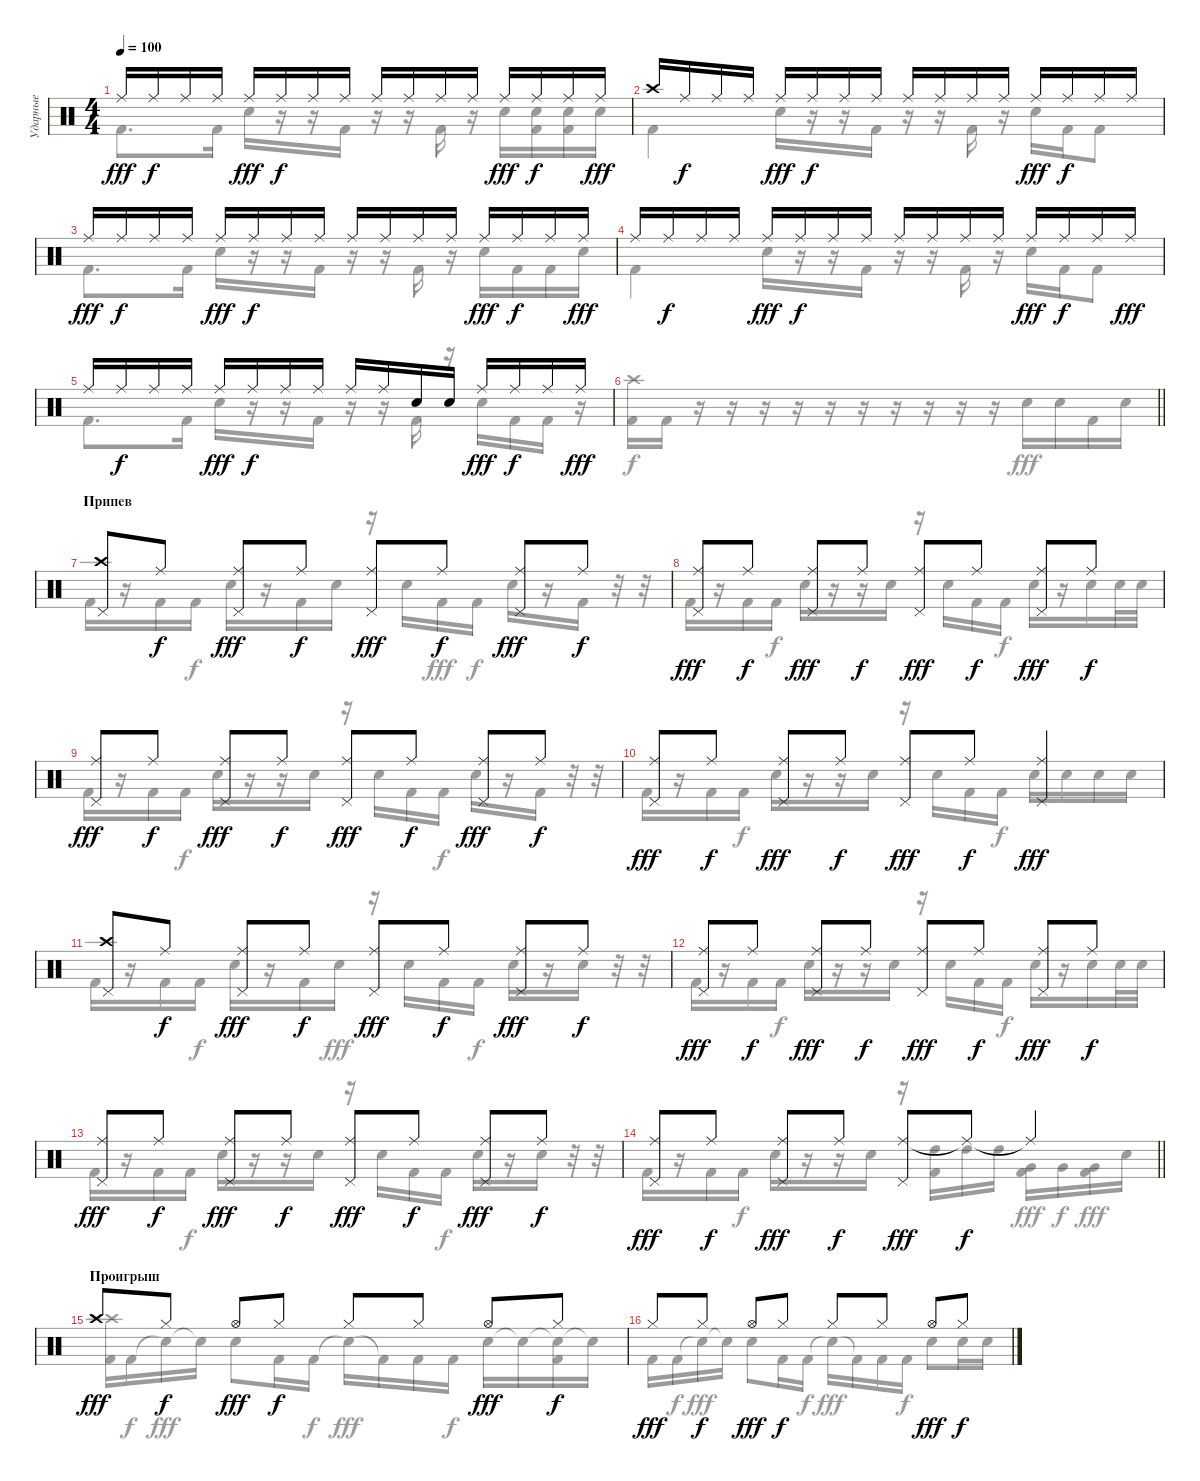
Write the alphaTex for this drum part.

\track ("Ударные" "Ударные") {instrument percussion}
\staff {score}
\articulation defaults
\voice
\ts (4 4)
\tempo 100
\clef neutral
\ks c "Ride (middle)".16{dy fff} "Ride (middle)".16{dy f} "Ride (middle)".16 "Ride (middle)".16 "Ride (middle)".16{dy fff} "Ride (middle)".16{dy f} "Ride (middle)".16 "Ride (middle)".16 "Ride (middle)".16 "Ride (middle)".16 "Ride (middle)".16 "Ride (middle)".16 "Ride (middle)".16{dy fff} "Ride (middle)".16{dy f} "Ride (middle)".16 "Ride (middle)".16{dy fff}
|
"Crash high (hit)".16 "Ride (middle)".16{dy f} "Ride (middle)".16 "Ride (middle)".16 "Ride (middle)".16{dy fff} "Ride (middle)".16{dy f} "Ride (middle)".16 "Ride (middle)".16 "Ride (middle)".16 "Ride (middle)".16 "Ride (middle)".16 "Ride (middle)".16 "Ride (middle)".16{dy fff} "Ride (middle)".16{dy f} "Ride (middle)".16 "Ride (middle)".16 |
"Ride (middle)".16{dy fff} "Ride (middle)".16{dy f} "Ride (middle)".16 "Ride (middle)".16 "Ride (middle)".16{dy fff} "Ride (middle)".16{dy f} "Ride (middle)".16 "Ride (middle)".16 "Ride (middle)".16 "Ride (middle)".16 "Ride (middle)".16 "Ride (middle)".16 "Ride (middle)".16{dy fff} "Ride (middle)".16{dy f} "Ride (middle)".16 "Ride (middle)".16{dy fff} |
"Ride (middle)".16 "Ride (middle)".16{dy f} "Ride (middle)".16 "Ride (middle)".16 "Ride (middle)".16{dy fff} "Ride (middle)".16{dy f} "Ride (middle)".16 "Ride (middle)".16 "Ride (middle)".16 "Ride (middle)".16 "Ride (middle)".16 "Ride (middle)".16 "Ride (middle)".16{dy fff} "Ride (middle)".16{dy f} "Ride (middle)".16 "Ride (middle)".16{dy fff} |
"Ride (middle)".16 "Ride (middle)".16{dy f} "Ride (middle)".16 "Ride (middle)".16 "Ride (middle)".16{dy fff} "Ride (middle)".16{dy f} "Ride (middle)".16 "Ride (middle)".16 "Ride (middle)".16 "Ride (middle)".16 "Snare (hit)".16 "Snare (hit)".16 "Ride (middle)".16{dy fff} "Ride (middle)".16{dy f} "Ride (middle)".16 "Ride (middle)".16{dy fff} |
\barLineRight lightlight
|
\section ("" "Припев")
("Crash high (hit)" "Pedal Hi-Hat (hit)").8 "Ride (middle)".8{dy f} ("Ride (middle)" "Pedal Hi-Hat (hit)").8{dy fff} "Ride (middle)".8{dy f} ("Ride (middle)" "Pedal Hi-Hat (hit)").8{dy fff} "Ride (middle)".8{dy f} ("Ride (middle)" "Pedal Hi-Hat (hit)").8{dy fff} "Ride (middle)".8{dy f} |
("Ride (middle)" "Pedal Hi-Hat (hit)").8{dy fff} "Ride (middle)".8{dy f} ("Ride (middle)" "Pedal Hi-Hat (hit)").8{dy fff} "Ride (middle)".8{dy f} ("Ride (middle)" "Pedal Hi-Hat (hit)").8{dy fff} "Ride (middle)".8{dy f} ("Ride (middle)" "Pedal Hi-Hat (hit)").8{dy fff} "Ride (middle)".8{dy f} |
("Ride (middle)" "Pedal Hi-Hat (hit)").8{dy fff} "Ride (middle)".8{dy f} ("Ride (middle)" "Pedal Hi-Hat (hit)").8{dy fff} "Ride (middle)".8{dy f} ("Ride (middle)" "Pedal Hi-Hat (hit)").8{dy fff} "Ride (middle)".8{dy f} ("Ride (middle)" "Pedal Hi-Hat (hit)").8{dy fff} "Ride (middle)".8{dy f} |
("Ride (middle)" "Pedal Hi-Hat (hit)").8{dy fff} "Ride (middle)".8{dy f} ("Ride (middle)" "Pedal Hi-Hat (hit)").8{dy fff} "Ride (middle)".8{dy f} ("Ride (middle)" "Pedal Hi-Hat (hit)").8{dy fff} "Ride (middle)".8{dy f} ("Ride (middle)" "Pedal Hi-Hat (hit)").4{dy fff} |
("Crash high (hit)" "Pedal Hi-Hat (hit)").8 "Ride (middle)".8{dy f} ("Ride (middle)" "Pedal Hi-Hat (hit)").8{dy fff} "Ride (middle)".8{dy f} ("Ride (middle)" "Pedal Hi-Hat (hit)").8{dy fff} "Ride (middle)".8{dy f} ("Ride (middle)" "Pedal Hi-Hat (hit)").8{dy fff} "Ride (middle)".8{dy f} |
("Ride (middle)" "Pedal Hi-Hat (hit)").8{dy fff} "Ride (middle)".8{dy f} ("Ride (middle)" "Pedal Hi-Hat (hit)").8{dy fff} "Ride (middle)".8{dy f} ("Ride (middle)" "Pedal Hi-Hat (hit)").8{dy fff} "Ride (middle)".8{dy f} ("Ride (middle)" "Pedal Hi-Hat (hit)").8{dy fff} "Ride (middle)".8{dy f} |
("Ride (middle)" "Pedal Hi-Hat (hit)").8{dy fff} "Ride (middle)".8{dy f} ("Ride (middle)" "Pedal Hi-Hat (hit)").8{dy fff} "Ride (middle)".8{dy f} ("Ride (middle)" "Pedal Hi-Hat (hit)").8{dy fff} "Ride (middle)".8{dy f} ("Ride (middle)" "Pedal Hi-Hat (hit)").8{dy fff} "Ride (middle)".8{dy f} |
\barLineRight lightlight
("Ride (middle)" "Pedal Hi-Hat (hit)").8{dy fff} "Ride (middle)".8{dy f} ("Ride (middle)" "Pedal Hi-Hat (hit)").8{dy fff} "Ride (middle)".8{dy f} ("Ride (middle)" "Pedal Hi-Hat (hit)").8{dy fff} "Ride (middle)"{t}.8{dy f} "Ride (middle)"{t}.4 |
\section ("" "Проигрыш")
"Crash high (hit)".8{dy fff} "Hi-Hat (closed)".8{dy f} "Hi-Hat (open)".8{dy fff} "Hi-Hat (closed)".8{dy f} "Hi-Hat (closed)".8 "Hi-Hat (closed)".8 "Hi-Hat (open)".8{dy fff} "Hi-Hat (closed)".8{dy f} |
"Hi-Hat (closed)".8{dy fff} "Hi-Hat (closed)".8{dy f} "Hi-Hat (open)".8{dy fff} "Hi-Hat (closed)".8{dy f} "Hi-Hat (closed)".8 "Hi-Hat (closed)".8 "Hi-Hat (open)".8{dy fff} "Hi-Hat (closed)".8{dy f}
\voice
\clef neutral
\ottava regular
\simile none
\ks c "Kick (hit) 2".8{d dy fff} "Kick (hit) 2".16 "Snare (hit) 2".16
r.16 r.16 "Kick (hit) 2".16 r.16 r.16 "Kick (hit) 2".16 r.16 "Snare (hit) 2".16 ("Snare (hit) 2" "Kick (hit) 2").16 ("Snare (hit) 2" "Kick (hit) 2").16 "Snare (hit) 2".16 |
"Kick (hit) 2".4 "Snare (hit) 2".16 r.16 r.16 "Kick (hit) 2".16 r.16 r.16 "Kick (hit) 2".16 r.16 "Snare (hit) 2".16 "Kick (hit) 2".16 "Kick (hit) 2".8 |
"Kick (hit) 2".8{d} "Kick (hit) 2".16 "Snare (hit) 2".16 r.16 r.16 "Kick (hit) 2".16 r.16 r.16 "Kick (hit) 2".16 r.16 "Snare (hit) 2".16 "Kick (hit) 2".16 "Kick (hit) 2".16 "Snare (hit) 2".16 |
"Kick (hit) 2".4 "Snare (hit) 2".16 r.16 r.16 "Kick (hit) 2".16 r.16 r.16 "Kick (hit) 2".16 r.16 "Snare (hit) 2".16 "Kick (hit) 2".16 "Kick (hit) 2".8 |
"Kick (hit) 2".8{d} "Kick (hit) 2".16 "Snare (hit) 2".16 r.16 r.16 "Kick (hit) 2".16 r.16 r.16 "Kick (hit) 2".16 r.16 "Snare (hit) 2".16 "Kick (hit) 2".16 "Kick (hit) 2".16 r.16 |
\barLineRight lightlight
("Crash high (hit)" "Kick (hit) 2").16{dy f} "Kick (hit) 2".16 r.16 r.16 r.16 r.16 r.16 r.16 r.16 r.16 r.16 r.16 "Snare (hit) 2".16{dy fff} "Snare (hit) 2".16 "Kick (hit) 2".16 "Snare (hit) 2".16 |
"Kick (hit) 2".16 r.16 "Kick (hit) 2".16 "Kick (hit) 2".16{dy f} "Snare (hit) 2".16{dy fff} r.16 "Kick (hit) 2".16{dy f} "Snare (hit) 2".16 r.16 "Snare (hit) 2".16 "Kick (hit) 2".16{dy fff} "Kick (hit) 2".16{dy f} "Snare (hit) 2".16{dy fff} r.16 "Kick (hit) 2".16{dy f} r.32 r.32 |
"Kick (hit) 2".16{dy fff} r.16 "Kick (hit) 2".16 "Kick (hit) 2".16{dy f} "Snare (hit) 2".16{dy fff} r.16 r.16 "Snare (hit) 2".16 r.16 "Snare (hit) 2".16 "Kick (hit) 2".16 "Kick (hit) 2".16{dy f} "Snare (hit) 2".16{dy fff} r.16 "Snare (hit) 2".16 "Snare (hit) 2".32 "Snare (hit) 2".32 |
"Kick (hit) 2".16 r.16 "Kick (hit) 2".16 "Kick (hit) 2".16{dy f} "Snare (hit) 2".16{dy fff} r.16 r.16 "Snare (hit) 2".16 r.16 "Snare (hit) 2".16 "Kick (hit) 2".16 "Kick (hit) 2".16{dy f} "Snare (hit) 2".16{dy fff} r.16 "Kick (hit) 2".16{dy f} r.32 r.32 |
"Kick (hit) 2".16{dy fff} r.16 "Kick (hit) 2".16 "Kick (hit) 2".16{dy f} "Snare (hit) 2".16{dy fff} r.16 r.16 "Snare (hit) 2".16 r.16 "Snare (hit) 2".16 "Kick (hit) 2".16 "Kick (hit) 2".16{dy f} "Snare (hit) 2".16{dy fff} "Snare (hit) 2".16 "Snare (hit) 2".16 "Snare (hit) 2".16 |
"Kick (hit) 2".16 r.16 "Kick (hit) 2".16 "Kick (hit) 2".16{dy f} "Snare (hit) 2".16{dy fff} r.16 "Kick (hit) 2".16{dy f} "Snare (hit) 2".16{dy fff} r.16 "Snare (hit) 2".16 "Kick (hit) 2".16 "Kick (hit) 2".16{dy f} "Snare (hit) 2".16{dy fff} r.16 "Snare (hit) 2".16 r.32 r.32 |
"Kick (hit) 2".16 r.16 "Kick (hit) 2".16 "Kick (hit) 2".16{dy f} "Snare (hit) 2".16{dy fff} r.16 r.16 "Snare (hit) 2".16 r.16 "Snare (hit) 2".16 "Kick (hit) 2".16 "Kick (hit) 2".16{dy f} "Snare (hit) 2".16{dy fff} r.16 "Snare (hit) 2".16 "Snare (hit) 2".32 "Snare (hit) 2".32 |
"Kick (hit) 2".16 r.16 "Kick (hit) 2".16 "Kick (hit) 2".16{dy f} "Snare (hit) 2".16{dy fff} r.16 r.16 "Snare (hit) 2".16 r.16 "Snare (hit) 2".16 "Kick (hit) 2".16 "Kick (hit) 2".16{dy f} "Snare (hit) 2".16{dy fff} r.16 "Snare (hit) 2".16 r.32 r.32 |
\barLineRight lightlight "Kick (hit) 2".16
r.16 "Kick (hit) 2".16 "Kick (hit) 2".16{dy f} "Snare (hit) 2".16{dy fff} r.16 r.16 "Snare (hit) 2".16 r.16 ("High Tom (hit)" "Kick (hit) 2").16 "High Tom (hit)".16{dy f} "High Tom (hit)".16 ("Very Low Tom (hit)" "Kick (hit) 2").16{dy fff} "Very Low Tom (hit)".16{dy f} ("Very Low Tom (hit)" "Kick (hit) 2").16{dy fff} "Snare (hit) 2".16 |
("Crash high (hit)" "Kick (hit) 2").16 "Kick (hit) 2".16{dy f} "Snare (hit)"{t}.16{dy fff} "Snare (hit)"{t}.16 "Snare (hit) 2".8 "Kick (hit) 2".16 "Kick (hit) 2".16{dy f} "Snare (hit)"{t}.16{dy fff} "Kick (hit) 2"{t}.16 "Kick (hit) 2".16 "Kick (hit) 2".16{dy f} "Snare (hit) 2".16{dy fff} "Snare (hit) 2"{t}.16 ("Snare (hit) 2"{t} "Kick (hit) 2").16 "Snare (hit) 2"{t}.16 |
"Kick (hit) 2".16 "Kick (hit) 2".16{dy f} "Snare (hit)"{t}.16{dy fff} "Snare (hit)"{t}.16 "Snare (hit) 2".8 "Kick (hit) 2".16 "Kick (hit) 2".16{dy f} "Snare (hit)"{t}.16{dy fff} "Kick (hit) 2"{t}.16 "Kick (hit) 2".16 "Kick (hit) 2".16{dy f} "Snare (hit) 2".8{dy fff} "Snare (hit) 2".16 "Snare (hit) 2".16
